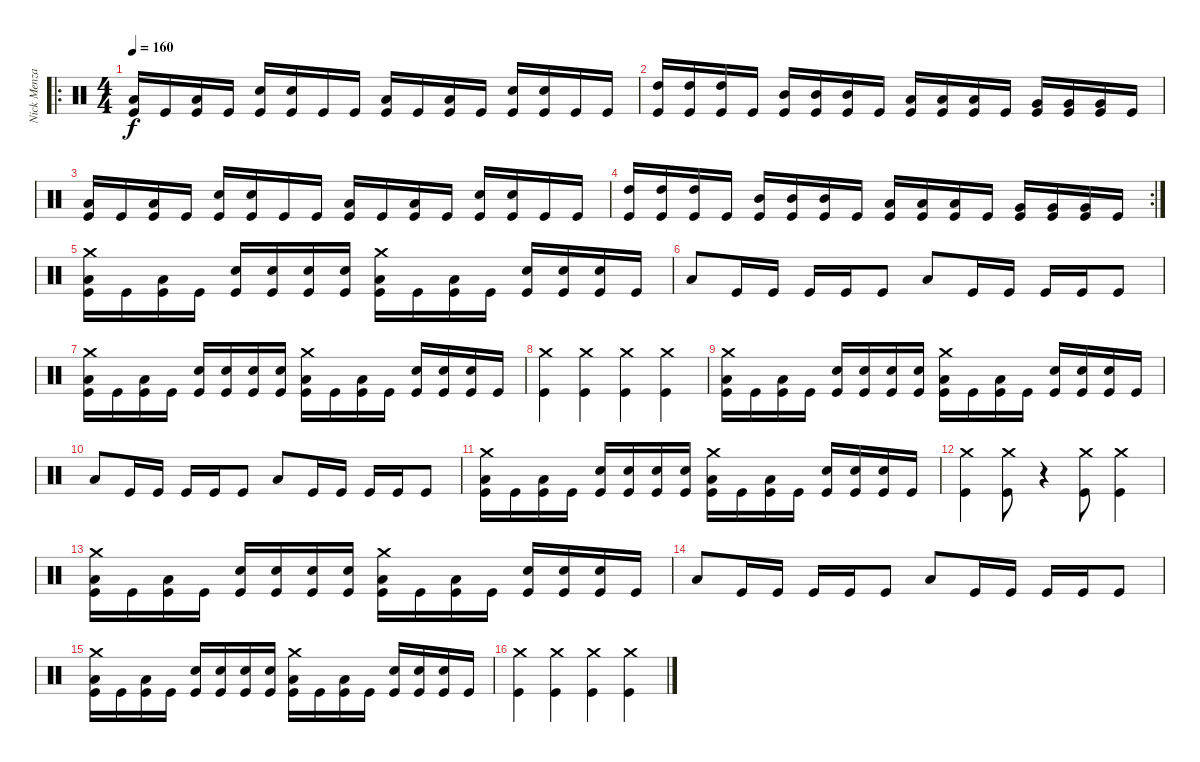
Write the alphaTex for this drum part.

\track ("Nick Menza" "Nick Menza") {instrument percussion}
\staff {score}
\articulation defaults
\ro
\ts (4 4)
\tempo 160
\clef neutral
\ks c
("Low Floor Tom (hit)" "Kick (hit)").16{dy f} "Kick (hit)".16 ("Low Floor Tom (hit)" "Kick (hit)").16 "Kick (hit)".16 ("Snare (hit) 2" "Kick (hit)").16 ("Snare (hit) 2" "Kick (hit)").16 "Kick (hit)".16 "Kick (hit)".16 ("Low Floor Tom (hit)" "Kick (hit)").16 "Kick (hit)".16 ("Low Floor Tom (hit)" "Kick (hit)").16 "Kick (hit)".16 ("Snare (hit) 2" "Kick (hit)").16 ("Snare (hit) 2" "Kick (hit)").16 "Kick (hit)".16 "Kick (hit)".16 |
("High Tom (hit)" "Kick (hit)").16 ("High Tom (hit)" "Kick (hit)").16 ("High Tom (hit)" "Kick (hit)").16 "Kick (hit)".16 ("Mid Tom (hit)" "Kick (hit)").16 ("Mid Tom (hit)" "Kick (hit)").16 ("Mid Tom (hit)" "Kick (hit)").16 "Kick (hit)".16 ("Low Tom (hit)" "Kick (hit)").16 ("Low Tom (hit)" "Kick (hit)").16 ("Low Tom (hit)" "Kick (hit)").16 "Kick (hit)".16 ("Very Low Tom (hit)" "Kick (hit)").16 ("Very Low Tom (hit)" "Kick (hit)").16 ("Very Low Tom (hit)" "Kick (hit)").16 "Kick (hit)".16 |
("Low Floor Tom (hit)" "Kick (hit)").16 "Kick (hit)".16 ("Low Floor Tom (hit)" "Kick (hit)").16 "Kick (hit)".16 ("Snare (hit) 2" "Kick (hit)").16 ("Snare (hit) 2" "Kick (hit)").16 "Kick (hit)".16 "Kick (hit)".16 ("Low Floor Tom (hit)" "Kick (hit)").16 "Kick (hit)".16 ("Low Floor Tom (hit)" "Kick (hit)").16 "Kick (hit)".16 ("Snare (hit) 2" "Kick (hit)").16 ("Snare (hit) 2" "Kick (hit)").16 "Kick (hit)".16 "Kick (hit)".16 |
\rc 2
("High Tom (hit)" "Kick (hit)").16 ("High Tom (hit)" "Kick (hit)").16 ("High Tom (hit)" "Kick (hit)").16 "Kick (hit)".16 ("Mid Tom (hit)" "Kick (hit)").16 ("Mid Tom (hit)" "Kick (hit)").16 ("Mid Tom (hit)" "Kick (hit)").16 "Kick (hit)".16 ("Low Tom (hit)" "Kick (hit)").16 ("Low Tom (hit)" "Kick (hit)").16 ("Low Tom (hit)" "Kick (hit)").16 "Kick (hit)".16 ("Very Low Tom (hit)" "Kick (hit)").16 ("Very Low Tom (hit)" "Kick (hit)").16 ("Very Low Tom (hit)" "Kick (hit)").16 "Kick (hit)".16 |
("Crash medium (hit)" "Low Floor Tom (hit)" "Kick (hit)").16 "Kick (hit)".16 ("Low Floor Tom (hit)" "Kick (hit)").16 "Kick (hit)".16 ("Snare (hit) 2" "Kick (hit)").16 ("Snare (hit) 2" "Kick (hit)").16 ("Snare (hit) 2" "Kick (hit)").16 ("Snare (hit) 2" "Kick (hit)").16 ("Crash medium (hit)" "Low Floor Tom (hit)" "Kick (hit)").16 "Kick (hit)".16 ("Low Floor Tom (hit)" "Kick (hit)").16 "Kick (hit)".16 ("Snare (hit) 2" "Kick (hit)").16 ("Snare (hit) 2" "Kick (hit)").16 ("Snare (hit) 2" "Kick (hit)").16 "Kick (hit)".16 |
"Low Floor Tom (hit)".8 "Kick (hit)".16 "Kick (hit)".16 "Kick (hit)".16 "Kick (hit)".16 "Kick (hit)".8 "Low Floor Tom (hit)".8 "Kick (hit)".16 "Kick (hit)".16 "Kick (hit)".16 "Kick (hit)".16 "Kick (hit)".8 |
("Crash medium (hit)" "Low Floor Tom (hit)" "Kick (hit)").16 "Kick (hit)".16 ("Low Floor Tom (hit)" "Kick (hit)").16 "Kick (hit)".16 ("Snare (hit) 2" "Kick (hit)").16 ("Snare (hit) 2" "Kick (hit)").16 ("Snare (hit) 2" "Kick (hit)").16 ("Snare (hit) 2" "Kick (hit)").16 ("Crash medium (hit)" "Low Floor Tom (hit)" "Kick (hit)").16 "Kick (hit)".16 ("Low Floor Tom (hit)" "Kick (hit)").16 "Kick (hit)".16 ("Snare (hit) 2" "Kick (hit)").16 ("Snare (hit) 2" "Kick (hit)").16 ("Snare (hit) 2" "Kick (hit)").16 "Kick (hit)".16 |
("Crash medium (hit)" "Kick (hit)").4 ("Crash medium (hit)" "Kick (hit)").4 ("Crash medium (hit)" "Kick (hit)").4 ("Crash medium (hit)" "Kick (hit)").4 |
("Crash medium (hit)" "Low Floor Tom (hit)" "Kick (hit)").16 "Kick (hit)".16 ("Low Floor Tom (hit)" "Kick (hit)").16 "Kick (hit)".16 ("Snare (hit) 2" "Kick (hit)").16 ("Snare (hit) 2" "Kick (hit)").16 ("Snare (hit) 2" "Kick (hit)").16 ("Snare (hit) 2" "Kick (hit)").16 ("Crash medium (hit)" "Low Floor Tom (hit)" "Kick (hit)").16 "Kick (hit)".16 ("Low Floor Tom (hit)" "Kick (hit)").16 "Kick (hit)".16 ("Snare (hit) 2" "Kick (hit)").16 ("Snare (hit) 2" "Kick (hit)").16 ("Snare (hit) 2" "Kick (hit)").16 "Kick (hit)".16 |
"Low Floor Tom (hit)".8 "Kick (hit)".16 "Kick (hit)".16 "Kick (hit)".16 "Kick (hit)".16 "Kick (hit)".8 "Low Floor Tom (hit)".8 "Kick (hit)".16 "Kick (hit)".16 "Kick (hit)".16 "Kick (hit)".16 "Kick (hit)".8 |
("Crash medium (hit)" "Low Floor Tom (hit)" "Kick (hit)").16 "Kick (hit)".16 ("Low Floor Tom (hit)" "Kick (hit)").16 "Kick (hit)".16 ("Snare (hit) 2" "Kick (hit)").16 ("Snare (hit) 2" "Kick (hit)").16 ("Snare (hit) 2" "Kick (hit)").16 ("Snare (hit) 2" "Kick (hit)").16 ("Crash medium (hit)" "Low Floor Tom (hit)" "Kick (hit)").16 "Kick (hit)".16 ("Low Floor Tom (hit)" "Kick (hit)").16 "Kick (hit)".16 ("Snare (hit) 2" "Kick (hit)").16 ("Snare (hit) 2" "Kick (hit)").16 ("Snare (hit) 2" "Kick (hit)").16 "Kick (hit)".16 |
("Crash medium (hit)" "Kick (hit)").4 ("Crash medium (hit)" "Kick (hit)").8 r.4 ("Crash medium (hit)" "Kick (hit)").8 ("Crash medium (hit)" "Kick (hit)").4 |
("Crash medium (hit)" "Low Floor Tom (hit)" "Kick (hit)").16 "Kick (hit)".16 ("Low Floor Tom (hit)" "Kick (hit)").16 "Kick (hit)".16 ("Snare (hit) 2" "Kick (hit)").16 ("Snare (hit) 2" "Kick (hit)").16 ("Snare (hit) 2" "Kick (hit)").16 ("Snare (hit) 2" "Kick (hit)").16 ("Crash medium (hit)" "Low Floor Tom (hit)" "Kick (hit)").16 "Kick (hit)".16 ("Low Floor Tom (hit)" "Kick (hit)").16 "Kick (hit)".16 ("Snare (hit) 2" "Kick (hit)").16 ("Snare (hit) 2" "Kick (hit)").16 ("Snare (hit) 2" "Kick (hit)").16 "Kick (hit)".16 |
"Low Floor Tom (hit)".8 "Kick (hit)".16 "Kick (hit)".16 "Kick (hit)".16 "Kick (hit)".16 "Kick (hit)".8 "Low Floor Tom (hit)".8 "Kick (hit)".16 "Kick (hit)".16 "Kick (hit)".16 "Kick (hit)".16 "Kick (hit)".8 |
("Crash medium (hit)" "Low Floor Tom (hit)" "Kick (hit)").16 "Kick (hit)".16 ("Low Floor Tom (hit)" "Kick (hit)").16 "Kick (hit)".16 ("Snare (hit) 2" "Kick (hit)").16 ("Snare (hit) 2" "Kick (hit)").16 ("Snare (hit) 2" "Kick (hit)").16 ("Snare (hit) 2" "Kick (hit)").16 ("Crash medium (hit)" "Low Floor Tom (hit)" "Kick (hit)").16 "Kick (hit)".16 ("Low Floor Tom (hit)" "Kick (hit)").16 "Kick (hit)".16 ("Snare (hit) 2" "Kick (hit)").16 ("Snare (hit) 2" "Kick (hit)").16 ("Snare (hit) 2" "Kick (hit)").16 "Kick (hit)".16 |
("Crash medium (hit)" "Kick (hit)").4 ("Crash medium (hit)" "Kick (hit)").4 ("Crash medium (hit)" "Kick (hit)").4 ("Crash medium (hit)" "Kick (hit)").4
